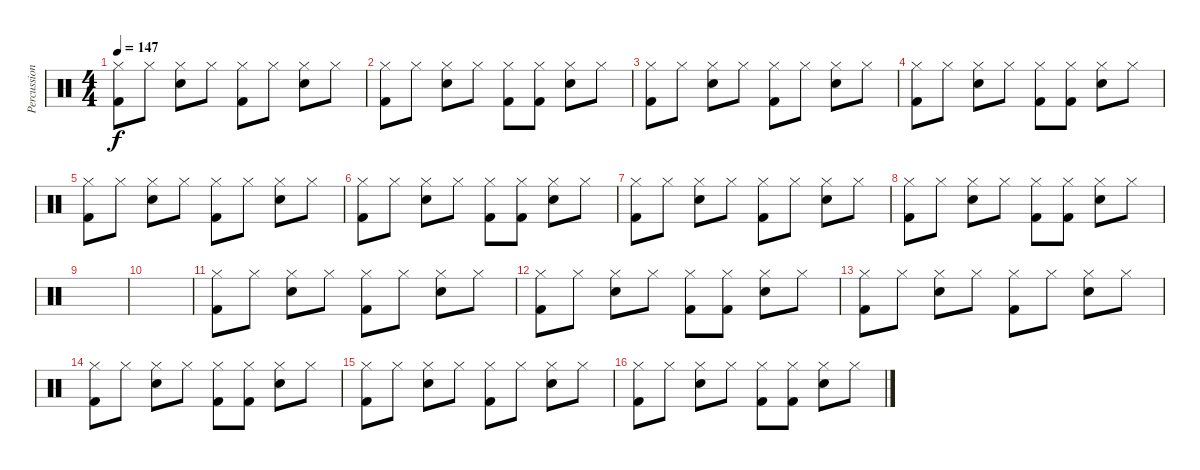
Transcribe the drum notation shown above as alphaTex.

\track ("Percussions" "Percussion") {instrument percussion}
\staff {score}
\articulation defaults
\ts (4 4)
\tempo 147
\clef neutral
\ks c
("Kick (hit) 2" "Hi-Hat (closed)").8{dy f} "Hi-Hat (closed)".8 ("Electric Snare (hit)" "Hi-Hat (closed)").8 "Hi-Hat (closed)".8 ("Kick (hit) 2" "Hi-Hat (closed)").8 "Hi-Hat (closed)".8 ("Electric Snare (hit)" "Hi-Hat (closed)").8 "Hi-Hat (closed)".8 |
("Kick (hit) 2" "Hi-Hat (closed)").8 "Hi-Hat (closed)".8 ("Electric Snare (hit)" "Hi-Hat (closed)").8 "Hi-Hat (closed)".8 ("Kick (hit) 2" "Hi-Hat (closed)").8 ("Kick (hit) 2" "Hi-Hat (closed)").8 ("Electric Snare (hit)" "Hi-Hat (closed)").8 "Hi-Hat (closed)".8 |
("Kick (hit) 2" "Hi-Hat (closed)").8 "Hi-Hat (closed)".8 ("Electric Snare (hit)" "Hi-Hat (closed)").8 "Hi-Hat (closed)".8 ("Kick (hit) 2" "Hi-Hat (closed)").8 "Hi-Hat (closed)".8 ("Electric Snare (hit)" "Hi-Hat (closed)").8 "Hi-Hat (closed)".8 |
("Kick (hit) 2" "Hi-Hat (closed)").8 "Hi-Hat (closed)".8 ("Electric Snare (hit)" "Hi-Hat (closed)").8 "Hi-Hat (closed)".8 ("Kick (hit) 2" "Hi-Hat (closed)").8 ("Kick (hit) 2" "Hi-Hat (closed)").8 ("Electric Snare (hit)" "Hi-Hat (closed)").8 "Hi-Hat (closed)".8 |
("Kick (hit) 2" "Hi-Hat (closed)").8 "Hi-Hat (closed)".8 ("Electric Snare (hit)" "Hi-Hat (closed)").8 "Hi-Hat (closed)".8 ("Kick (hit) 2" "Hi-Hat (closed)").8 "Hi-Hat (closed)".8 ("Electric Snare (hit)" "Hi-Hat (closed)").8 "Hi-Hat (closed)".8 |
("Kick (hit) 2" "Hi-Hat (closed)").8 "Hi-Hat (closed)".8 ("Electric Snare (hit)" "Hi-Hat (closed)").8 "Hi-Hat (closed)".8 ("Kick (hit) 2" "Hi-Hat (closed)").8 ("Kick (hit) 2" "Hi-Hat (closed)").8 ("Electric Snare (hit)" "Hi-Hat (closed)").8 "Hi-Hat (closed)".8 |
("Kick (hit) 2" "Hi-Hat (closed)").8 "Hi-Hat (closed)".8 ("Electric Snare (hit)" "Hi-Hat (closed)").8 "Hi-Hat (closed)".8 ("Kick (hit) 2" "Hi-Hat (closed)").8 "Hi-Hat (closed)".8 ("Electric Snare (hit)" "Hi-Hat (closed)").8 "Hi-Hat (closed)".8 |
("Kick (hit) 2" "Hi-Hat (closed)").8 "Hi-Hat (closed)".8 ("Electric Snare (hit)" "Hi-Hat (closed)").8 "Hi-Hat (closed)".8 ("Kick (hit) 2" "Hi-Hat (closed)").8 ("Kick (hit) 2" "Hi-Hat (closed)").8 ("Electric Snare (hit)" "Hi-Hat (closed)").8 "Hi-Hat (closed)".8 |
|
|
("Kick (hit) 2" "Hi-Hat (closed)").8 "Hi-Hat (closed)".8 ("Electric Snare (hit)" "Hi-Hat (closed)").8 "Hi-Hat (closed)".8 ("Kick (hit) 2" "Hi-Hat (closed)").8 "Hi-Hat (closed)".8 ("Electric Snare (hit)" "Hi-Hat (closed)").8 "Hi-Hat (closed)".8 |
("Kick (hit) 2" "Hi-Hat (closed)").8 "Hi-Hat (closed)".8 ("Electric Snare (hit)" "Hi-Hat (closed)").8 "Hi-Hat (closed)".8 ("Kick (hit) 2" "Hi-Hat (closed)").8 ("Kick (hit) 2" "Hi-Hat (closed)").8 ("Electric Snare (hit)" "Hi-Hat (closed)").8 "Hi-Hat (closed)".8 |
("Kick (hit) 2" "Hi-Hat (closed)").8 "Hi-Hat (closed)".8 ("Electric Snare (hit)" "Hi-Hat (closed)").8 "Hi-Hat (closed)".8 ("Kick (hit) 2" "Hi-Hat (closed)").8 "Hi-Hat (closed)".8 ("Electric Snare (hit)" "Hi-Hat (closed)").8 "Hi-Hat (closed)".8 |
("Kick (hit) 2" "Hi-Hat (closed)").8 "Hi-Hat (closed)".8 ("Electric Snare (hit)" "Hi-Hat (closed)").8 "Hi-Hat (closed)".8 ("Kick (hit) 2" "Hi-Hat (closed)").8 ("Kick (hit) 2" "Hi-Hat (closed)").8 ("Electric Snare (hit)" "Hi-Hat (closed)").8 "Hi-Hat (closed)".8 |
("Kick (hit) 2" "Hi-Hat (closed)").8 "Hi-Hat (closed)".8 ("Electric Snare (hit)" "Hi-Hat (closed)").8 "Hi-Hat (closed)".8 ("Kick (hit) 2" "Hi-Hat (closed)").8 "Hi-Hat (closed)".8 ("Electric Snare (hit)" "Hi-Hat (closed)").8 "Hi-Hat (closed)".8 |
("Kick (hit) 2" "Hi-Hat (closed)").8 "Hi-Hat (closed)".8 ("Electric Snare (hit)" "Hi-Hat (closed)").8 "Hi-Hat (closed)".8 ("Kick (hit) 2" "Hi-Hat (closed)").8 ("Kick (hit) 2" "Hi-Hat (closed)").8 ("Electric Snare (hit)" "Hi-Hat (closed)").8 "Hi-Hat (closed)".8
